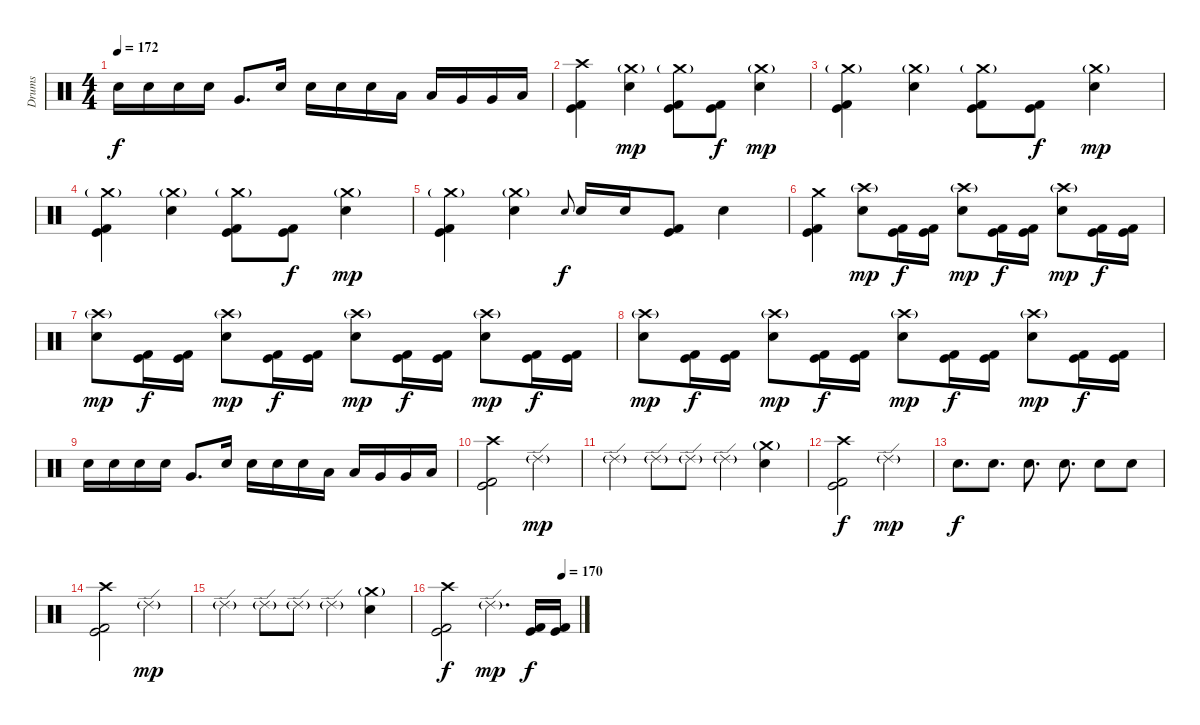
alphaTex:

\track ("Drums" "Drums") {instrument percussion}
\staff {score}
\articulation defaults
\ts (4 4)
\tempo 172
\clef neutral
\ks c "Electric Snare (hit)".16{dy f} "Electric Snare (hit)".16 "Electric Snare (hit)".16 "Electric Snare (hit)".16 "Very Low Tom (hit)".8{d} "Electric Snare (hit)".16 "Electric Snare (hit)".16 "Electric Snare (hit)".16 "Electric Snare (hit)".16 "Low Tom (hit)".16 "Low Tom (hit)".16 "Very Low Tom (hit)".16 "Very Low Tom (hit)".16 "Low Floor Tom (hit)".16
|
("Crash high (hit)" "Kick (hit)" "Kick (hit) 2").4 ("Crash medium (hit)"{g} "Electric Snare (hit)").4{dy mp} ("Crash medium (hit)"{g} "Kick (hit)" "Kick (hit) 2").8 ("Kick (hit)" "Kick (hit) 2").8{dy f} ("Crash medium (hit)"{g} "Electric Snare (hit)").4{dy mp} |
("Crash medium (hit)"{g} "Kick (hit)" "Kick (hit) 2").4 ("Crash medium (hit)"{g} "Electric Snare (hit)").4 ("Crash medium (hit)"{g} "Kick (hit)" "Kick (hit) 2").8 ("Kick (hit)" "Kick (hit) 2").8{dy f} ("Crash medium (hit)"{g} "Electric Snare (hit)").4{dy mp} |
("Crash medium (hit)"{g} "Kick (hit)" "Kick (hit) 2").4 ("Crash medium (hit)"{g} "Electric Snare (hit)").4 ("Crash medium (hit)"{g} "Kick (hit)" "Kick (hit) 2").8 ("Kick (hit)" "Kick (hit) 2").8{dy f} ("Crash medium (hit)"{g} "Electric Snare (hit)").4{dy mp} |
("Crash medium (hit)"{g} "Kick (hit)" "Kick (hit) 2").4 ("Crash medium (hit)"{g} "Electric Snare (hit)").4 "Electric Snare (hit)".8{gr onbeat dy f} "Electric Snare (hit)".16 "Electric Snare (hit)".16 ("Kick (hit)" "Kick (hit) 2").8 "Electric Snare (hit)".4 |
("Crash medium (hit)" "Kick (hit)" "Kick (hit) 2").4 ("Crash high (hit)"{g} "Electric Snare (hit)").8{dy mp} ("Kick (hit)" "Kick (hit) 2").16{dy f} ("Kick (hit)" "Kick (hit) 2").16 ("Crash high (hit)"{g} "Electric Snare (hit)").8{dy mp} ("Kick (hit)" "Kick (hit) 2").16{dy f} ("Kick (hit)" "Kick (hit) 2").16 ("Crash high (hit)"{g} "Electric Snare (hit)").8{dy mp} ("Kick (hit)" "Kick (hit) 2").16{dy f} ("Kick (hit)" "Kick (hit) 2").16 |
("Crash high (hit)"{g} "Electric Snare (hit)").8{dy mp} ("Kick (hit)" "Kick (hit) 2").16{dy f} ("Kick (hit)" "Kick (hit) 2").16 ("Crash high (hit)"{g} "Electric Snare (hit)").8{dy mp} ("Kick (hit)" "Kick (hit) 2").16{dy f} ("Kick (hit)" "Kick (hit) 2").16 ("Crash high (hit)"{g} "Electric Snare (hit)").8{dy mp} ("Kick (hit)" "Kick (hit) 2").16{dy f} ("Kick (hit)" "Kick (hit) 2").16 ("Crash high (hit)"{g} "Electric Snare (hit)").8{dy mp} ("Kick (hit)" "Kick (hit) 2").16{dy f} ("Kick (hit)" "Kick (hit) 2").16 |
("Crash high (hit)"{g} "Electric Snare (hit)").8{dy mp} ("Kick (hit)" "Kick (hit) 2").16{dy f} ("Kick (hit)" "Kick (hit) 2").16 ("Crash high (hit)"{g} "Electric Snare (hit)").8{dy mp} ("Kick (hit)" "Kick (hit) 2").16{dy f} ("Kick (hit)" "Kick (hit) 2").16 ("Crash high (hit)"{g} "Electric Snare (hit)").8{dy mp} ("Kick (hit)" "Kick (hit) 2").16{dy f} ("Kick (hit)" "Kick (hit) 2").16 ("Crash high (hit)"{g} "Electric Snare (hit)").8{dy mp} ("Kick (hit)" "Kick (hit) 2").16{dy f} ("Kick (hit)" "Kick (hit) 2").16 |
"Electric Snare (hit)".16 "Electric Snare (hit)".16 "Electric Snare (hit)".16 "Electric Snare (hit)".16 "Very Low Tom (hit)".8{d} "Electric Snare (hit)".16 "Electric Snare (hit)".16 "Electric Snare (hit)".16 "Electric Snare (hit)".16 "Low Tom (hit)".16 "Low Tom (hit)".16 "Very Low Tom (hit)".16 "Very Low Tom (hit)".16 "Low Floor Tom (hit)".16 |
("Crash high (hit)" "Kick (hit)" "Kick (hit) 2").2 "Ride (edge) 2"{g}.2{dy mp} |
"Ride (edge) 2"{g}.4 "Ride (edge) 2"{g}.8 "Ride (edge) 2"{g}.8 "Ride (edge) 2"{g}.4 ("Crash medium (hit)"{g} "Electric Snare (hit)").4 |
("Crash high (hit)" "Kick (hit)" "Kick (hit) 2").2{dy f} "Ride (edge) 2"{g}.2{dy mp} |
"Electric Snare (hit)".8{d dy f} "Electric Snare (hit)".8{d} "Electric Snare (hit)".8{d} "Electric Snare (hit)".8{d} "Electric Snare (hit)".8 "Electric Snare (hit)".8 |
("Crash high (hit)" "Kick (hit)" "Kick (hit) 2").2 "Ride (edge) 2"{g}.2{dy mp} |
"Ride (edge) 2"{g}.4 "Ride (edge) 2"{g}.8 "Ride (edge) 2"{g}.8 "Ride (edge) 2"{g}.4 ("Crash medium (hit)"{g} "Electric Snare (hit)").4 |
\tempo (170 0.875)
("Crash high (hit)" "Kick (hit)" "Kick (hit) 2").2{dy f} "Ride (edge) 2"{g}.4{d dy mp} ("Kick (hit)" "Kick (hit) 2").16{dy f} ("Kick (hit)" "Kick (hit) 2").16
